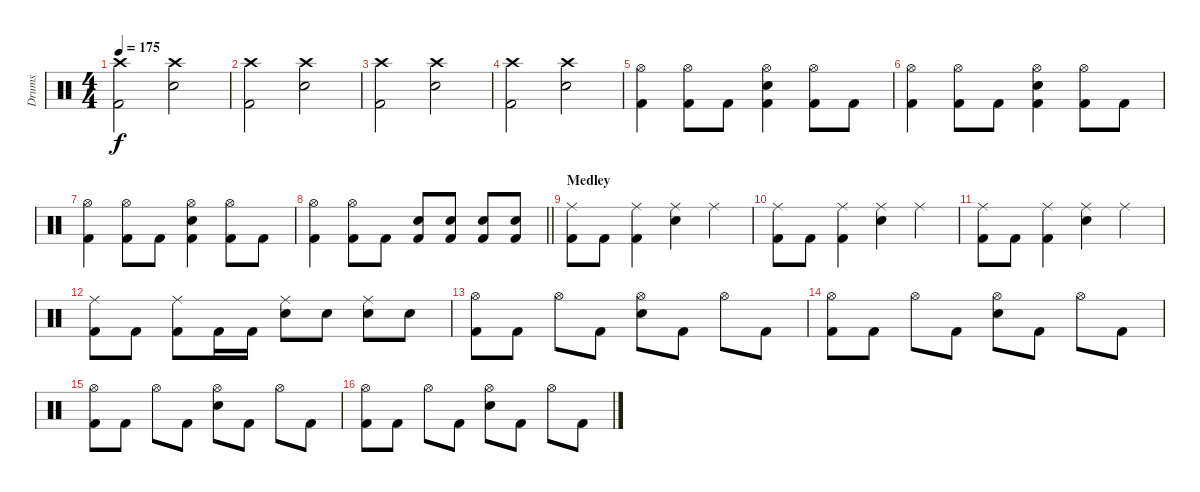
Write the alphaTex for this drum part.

\track ("Drums" "Drums") {instrument percussion}
\staff {score}
\articulation defaults
\ts (4 4)
\tempo 175
\clef neutral
\ks c
("Crash high (hit)" "Kick (hit) 2").2{dy f} ("Crash high (hit)" "Snare (hit) 2").2 |
("Crash high (hit)" "Kick (hit) 2").2 ("Crash high (hit)" "Snare (hit) 2").2 |
("Crash high (hit)" "Kick (hit) 2").2 ("Crash high (hit)" "Snare (hit) 2").2 |
("Crash high (hit)" "Kick (hit) 2").2 ("Crash high (hit)" "Snare (hit) 2").2 |
("Hi-Hat (open)" "Kick (hit) 2").4 ("Hi-Hat (open)" "Kick (hit) 2").8 "Kick (hit) 2".8 ("Hi-Hat (open)" "Snare (hit) 2" "Kick (hit) 2").4 ("Hi-Hat (open)" "Kick (hit) 2").8 "Kick (hit) 2".8 |
("Hi-Hat (open)" "Kick (hit) 2").4 ("Hi-Hat (open)" "Kick (hit) 2").8 "Kick (hit) 2".8 ("Hi-Hat (open)" "Snare (hit) 2" "Kick (hit) 2").4 ("Hi-Hat (open)" "Kick (hit) 2").8 "Kick (hit) 2".8 |
("Hi-Hat (open)" "Kick (hit) 2").4 ("Hi-Hat (open)" "Kick (hit) 2").8 "Kick (hit) 2".8 ("Hi-Hat (open)" "Snare (hit) 2" "Kick (hit) 2").4 ("Hi-Hat (open)" "Kick (hit) 2").8 "Kick (hit) 2".8 |
\barLineRight lightlight
("Hi-Hat (open)" "Kick (hit) 2").4 ("Hi-Hat (open)" "Kick (hit) 2").8 "Kick (hit) 2".8 ("Snare (hit) 2" "Kick (hit) 2").8 ("Snare (hit) 2" "Kick (hit) 2").8 ("Snare (hit) 2" "Kick (hit) 2").8 ("Snare (hit) 2" "Kick (hit) 2").8 |
\section ("" "Medley")
("Ride (middle)" "Kick (hit) 2").8 "Kick (hit) 2".8 ("Ride (middle)" "Kick (hit) 2").4 ("Ride (middle)" "Snare (hit) 2").4 "Ride (middle)".4 |
("Ride (middle)" "Kick (hit) 2").8 "Kick (hit) 2".8 ("Ride (middle)" "Kick (hit) 2").4 ("Ride (middle)" "Snare (hit) 2").4 "Ride (middle)".4 |
("Ride (middle)" "Kick (hit) 2").8 "Kick (hit) 2".8 ("Ride (middle)" "Kick (hit) 2").4 ("Ride (middle)" "Snare (hit) 2").4 "Ride (middle)".4 |
("Ride (middle)" "Kick (hit) 2").8 "Kick (hit) 2".8 ("Ride (middle)" "Kick (hit) 2").8 "Kick (hit) 2".16 "Kick (hit) 2".16 ("Ride (middle)" "Snare (hit) 2").8 "Snare (hit) 2".8 ("Ride (middle)" "Snare (hit) 2").8 "Snare (hit) 2".8 |
("Hi-Hat (open)" "Kick (hit) 2").8 "Kick (hit) 2".8 "Hi-Hat (open)".8 "Kick (hit) 2".8 ("Hi-Hat (open)" "Snare (hit) 2").8 "Kick (hit) 2".8 "Hi-Hat (open)".8 "Kick (hit) 2".8 |
("Hi-Hat (open)" "Kick (hit) 2").8 "Kick (hit) 2".8 "Hi-Hat (open)".8 "Kick (hit) 2".8 ("Hi-Hat (open)" "Snare (hit) 2").8 "Kick (hit) 2".8 "Hi-Hat (open)".8 "Kick (hit) 2".8 |
("Hi-Hat (open)" "Kick (hit) 2").8 "Kick (hit) 2".8 "Hi-Hat (open)".8 "Kick (hit) 2".8 ("Hi-Hat (open)" "Snare (hit) 2").8 "Kick (hit) 2".8 "Hi-Hat (open)".8 "Kick (hit) 2".8 |
("Hi-Hat (open)" "Kick (hit) 2").8 "Kick (hit) 2".8 "Hi-Hat (open)".8 "Kick (hit) 2".8 ("Hi-Hat (open)" "Snare (hit) 2").8 "Kick (hit) 2".8 "Hi-Hat (open)".8 "Kick (hit) 2".8
